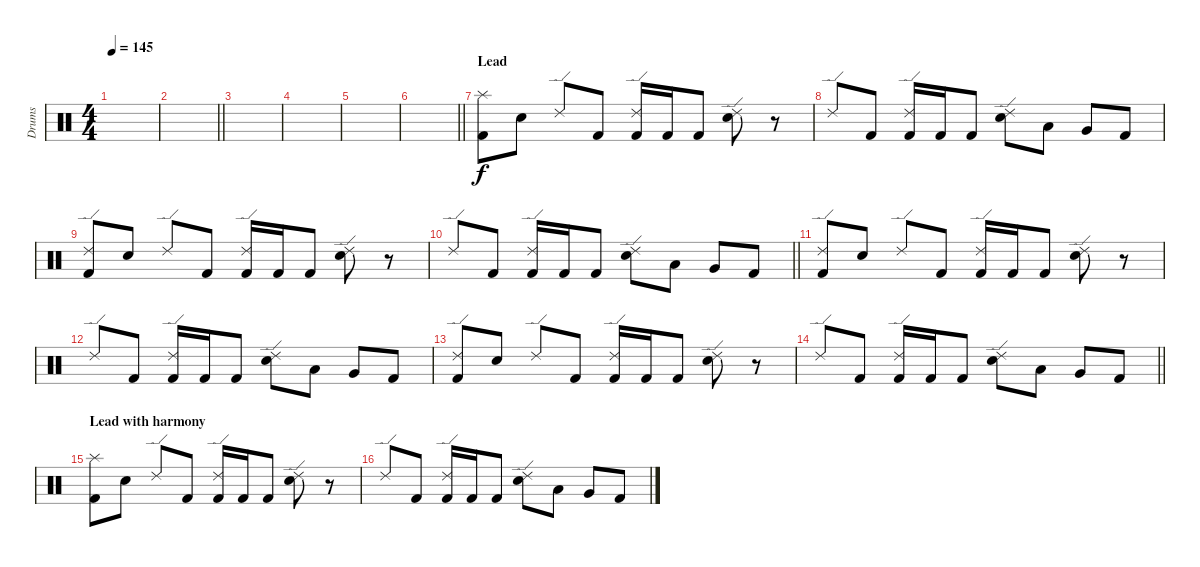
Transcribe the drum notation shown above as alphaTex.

\track ("Drums" "Drums") {mute instrument percussion}
\staff {score}
\articulation defaults
\ts (4 4)
\tempo 145
\clef neutral
\ks c
|
\barLineRight lightlight
|
|
|
|
\barLineRight lightlight
|
\section ("" "Lead")
("Splash (hit)" "Kick (hit) 2").8 "Electric Snare (hit)".8 "Ride (edge) 2".8 "Kick (hit) 2".8 ("Ride (edge) 2" "Kick (hit) 2").16 "Kick (hit) 2".16 "Kick (hit) 2".8 ("Ride (edge) 2" "Electric Snare (hit)").8 r.8 |
"Ride (edge) 2".8 "Kick (hit) 2".8 ("Ride (edge) 2" "Kick (hit) 2").16 "Kick (hit) 2".16 "Kick (hit) 2".8 ("Ride (edge) 2" "Electric Snare (hit)").8 "Low Tom (hit)".8 "Very Low Tom (hit)".8 "Kick (hit) 2".8 |
("Ride (edge) 2" "Kick (hit) 2").8 "Electric Snare (hit)".8 "Ride (edge) 2".8 "Kick (hit) 2".8 ("Ride (edge) 2" "Kick (hit) 2").16 "Kick (hit) 2".16 "Kick (hit) 2".8 ("Ride (edge) 2" "Electric Snare (hit)").8 r.8 |
\barLineRight lightlight "Ride (edge) 2".8 "Kick (hit) 2".8
("Ride (edge) 2" "Kick (hit) 2").16 "Kick (hit) 2".16 "Kick (hit) 2".8 ("Ride (edge) 2" "Electric Snare (hit)").8 "Low Tom (hit)".8 "Very Low Tom (hit)".8 "Kick (hit) 2".8 |
("Ride (edge) 2" "Kick (hit) 2").8 "Electric Snare (hit)".8 "Ride (edge) 2".8 "Kick (hit) 2".8 ("Ride (edge) 2" "Kick (hit) 2").16 "Kick (hit) 2".16 "Kick (hit) 2".8 ("Ride (edge) 2" "Electric Snare (hit)").8 r.8 |
"Ride (edge) 2".8 "Kick (hit) 2".8 ("Ride (edge) 2" "Kick (hit) 2").16 "Kick (hit) 2".16 "Kick (hit) 2".8 ("Ride (edge) 2" "Electric Snare (hit)").8 "Low Tom (hit)".8 "Very Low Tom (hit)".8 "Kick (hit) 2".8 |
("Ride (edge) 2" "Kick (hit) 2").8 "Electric Snare (hit)".8 "Ride (edge) 2".8 "Kick (hit) 2".8 ("Ride (edge) 2" "Kick (hit) 2").16 "Kick (hit) 2".16 "Kick (hit) 2".8 ("Ride (edge) 2" "Electric Snare (hit)").8 r.8 |
\barLineRight lightlight "Ride (edge) 2".8 "Kick (hit) 2".8
("Ride (edge) 2" "Kick (hit) 2").16 "Kick (hit) 2".16 "Kick (hit) 2".8 ("Ride (edge) 2" "Electric Snare (hit)").8 "Low Tom (hit)".8 "Very Low Tom (hit)".8 "Kick (hit) 2".8 |
\section ("" "Lead with harmony")
("Splash (hit)" "Kick (hit) 2").8 "Electric Snare (hit)".8 "Ride (edge) 2".8 "Kick (hit) 2".8 ("Ride (edge) 2" "Kick (hit) 2").16 "Kick (hit) 2".16 "Kick (hit) 2".8 ("Ride (edge) 2" "Electric Snare (hit)").8 r.8 |
"Ride (edge) 2".8 "Kick (hit) 2".8 ("Ride (edge) 2" "Kick (hit) 2").16 "Kick (hit) 2".16 "Kick (hit) 2".8 ("Ride (edge) 2" "Electric Snare (hit)").8 "Low Tom (hit)".8 "Very Low Tom (hit)".8 "Kick (hit) 2".8
